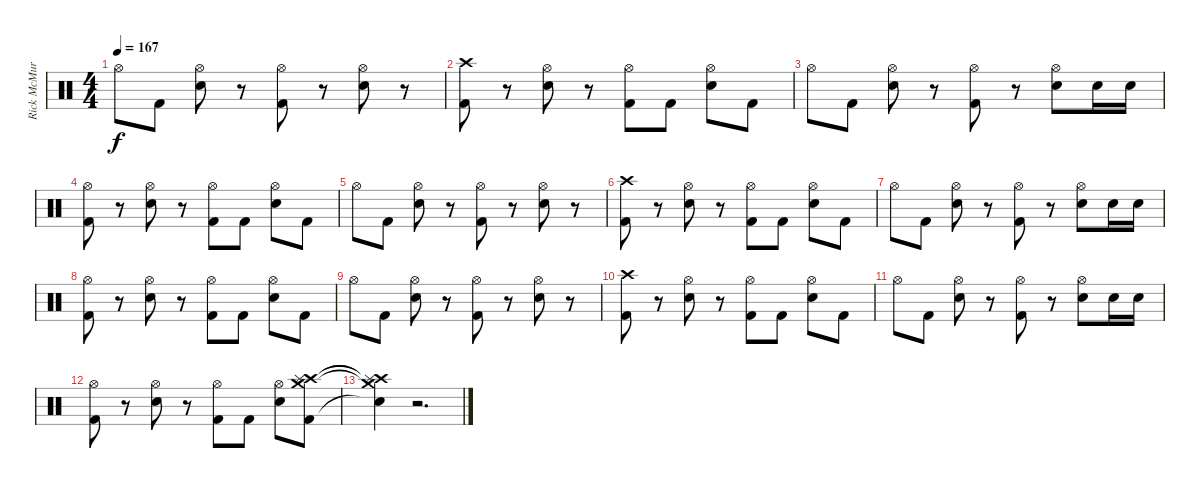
\track ("Rick McMurray" "Rick McMur") {instrument percussion}
\staff {score}
\articulation defaults
\ts (4 4)
\tempo 167
\clef neutral
\ks c "Hi-Hat (open)".8{dy f} "Kick (hit) 2".8
("Hi-Hat (open)" "Electric Snare (hit)").8 r.8 ("Hi-Hat (open)" "Kick (hit) 2").8 r.8 ("Hi-Hat (open)" "Electric Snare (hit)").8 r.8 |
("Crash high (hit)" "Kick (hit) 2").8 r.8 ("Hi-Hat (open)" "Electric Snare (hit)").8 r.8 ("Hi-Hat (open)" "Kick (hit) 2").8 "Kick (hit) 2".8 ("Hi-Hat (open)" "Electric Snare (hit)").8 "Kick (hit) 2".8 |
"Hi-Hat (open)".8 "Kick (hit) 2".8 ("Hi-Hat (open)" "Electric Snare (hit)").8 r.8 ("Hi-Hat (open)" "Kick (hit) 2").8 r.8 ("Hi-Hat (open)" "Electric Snare (hit)").8 "Electric Snare (hit)".16 "Electric Snare (hit)".16 |
("Hi-Hat (open)" "Kick (hit) 2").8 r.8 ("Hi-Hat (open)" "Electric Snare (hit)").8 r.8 ("Hi-Hat (open)" "Kick (hit) 2").8 "Kick (hit) 2".8 ("Hi-Hat (open)" "Electric Snare (hit)").8 "Kick (hit) 2".8 |
"Hi-Hat (open)".8 "Kick (hit) 2".8 ("Hi-Hat (open)" "Electric Snare (hit)").8 r.8 ("Hi-Hat (open)" "Kick (hit) 2").8 r.8 ("Hi-Hat (open)" "Electric Snare (hit)").8 r.8 |
("Crash high (hit)" "Kick (hit) 2").8 r.8 ("Hi-Hat (open)" "Electric Snare (hit)").8 r.8 ("Hi-Hat (open)" "Kick (hit) 2").8 "Kick (hit) 2".8 ("Hi-Hat (open)" "Electric Snare (hit)").8 "Kick (hit) 2".8 |
"Hi-Hat (open)".8 "Kick (hit) 2".8 ("Hi-Hat (open)" "Electric Snare (hit)").8 r.8 ("Hi-Hat (open)" "Kick (hit) 2").8 r.8 ("Hi-Hat (open)" "Electric Snare (hit)").8 "Electric Snare (hit)".16 "Electric Snare (hit)".16 |
("Hi-Hat (open)" "Kick (hit) 2").8 r.8 ("Hi-Hat (open)" "Electric Snare (hit)").8 r.8 ("Hi-Hat (open)" "Kick (hit) 2").8 "Kick (hit) 2".8 ("Hi-Hat (open)" "Electric Snare (hit)").8 "Kick (hit) 2".8 |
"Hi-Hat (open)".8 "Kick (hit) 2".8 ("Hi-Hat (open)" "Electric Snare (hit)").8 r.8 ("Hi-Hat (open)" "Kick (hit) 2").8 r.8 ("Hi-Hat (open)" "Electric Snare (hit)").8 r.8 |
("Crash high (hit)" "Kick (hit) 2").8 r.8 ("Hi-Hat (open)" "Electric Snare (hit)").8 r.8 ("Hi-Hat (open)" "Kick (hit) 2").8 "Kick (hit) 2".8 ("Hi-Hat (open)" "Electric Snare (hit)").8 "Kick (hit) 2".8 |
"Hi-Hat (open)".8 "Kick (hit) 2".8 ("Hi-Hat (open)" "Electric Snare (hit)").8 r.8 ("Hi-Hat (open)" "Kick (hit) 2").8 r.8 ("Hi-Hat (open)" "Electric Snare (hit)").8 "Electric Snare (hit)".16 "Electric Snare (hit)".16 |
("Hi-Hat (open)" "Kick (hit) 2").8 r.8 ("Hi-Hat (open)" "Electric Snare (hit)").8 r.8 ("Hi-Hat (open)" "Kick (hit) 2").8 "Kick (hit) 2".8 ("Hi-Hat (open)" "Electric Snare (hit)").8 ("Crash high (hit)" "Crash medium (hit)" "Splash (hit)" "Kick (hit) 2").8 |
("Crash high (hit)"{t} "Crash medium (hit)"{t} "Splash (hit)"{t} "Snare (hit)"{t}).4 r.2{d}
